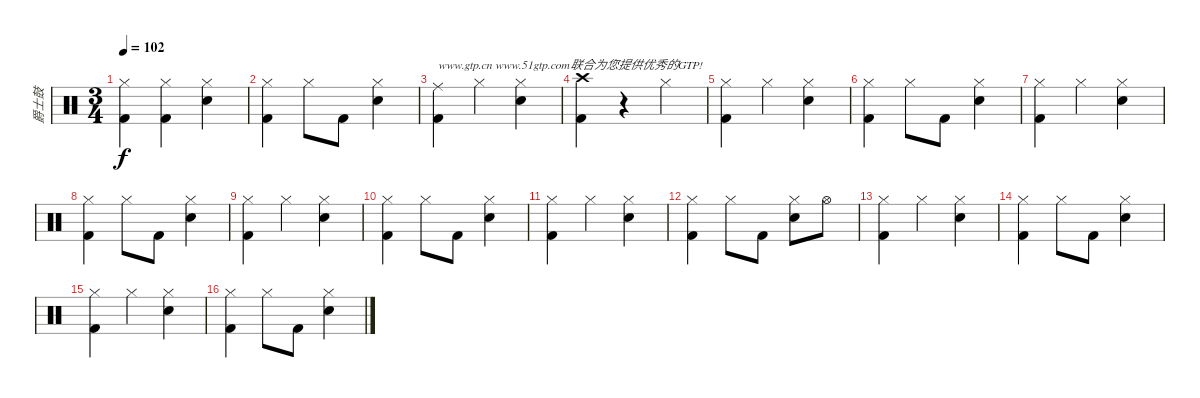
\track ("爵士鼓" "爵士鼓") {instrument percussion}
\staff {score}
\articulation defaults
\ts (3 4)
\tempo 102
\clef neutral
\ks c
("Hi-Hat (closed)" "Kick (hit) 2").4{dy f} ("Hi-Hat (closed)" "Kick (hit) 2").4 ("Hi-Hat (closed)" "Electric Snare (hit)").4 |
("Hi-Hat (closed)" "Kick (hit) 2").4 "Hi-Hat (closed)".8 "Kick (hit) 2".8 ("Hi-Hat (closed)" "Electric Snare (hit)").4 |
("Ride (middle)" "Kick (hit) 2").4{txt "www.gtp.cn www.51gtp.com联合为您提供优秀的GTP!"} "Hi-Hat (closed)".4 ("Hi-Hat (closed)" "Electric Snare (hit)").4 |
("Crash high (hit)" "Kick (hit) 2").4 r.4 "Hi-Hat (closed)".4 |
("Hi-Hat (closed)" "Kick (hit) 2").4 "Hi-Hat (closed)".4 ("Hi-Hat (closed)" "Electric Snare (hit)").4 |
("Hi-Hat (closed)" "Kick (hit) 2").4 "Hi-Hat (closed)".8 "Kick (hit) 2".8 ("Hi-Hat (closed)" "Electric Snare (hit)").4 |
("Hi-Hat (closed)" "Kick (hit) 2").4 "Hi-Hat (closed)".4 ("Hi-Hat (closed)" "Electric Snare (hit)").4 |
("Hi-Hat (closed)" "Kick (hit) 2").4 "Hi-Hat (closed)".8 "Kick (hit) 2".8 ("Hi-Hat (closed)" "Electric Snare (hit)").4 |
("Hi-Hat (closed)" "Kick (hit) 2").4 "Hi-Hat (closed)".4 ("Hi-Hat (closed)" "Electric Snare (hit)").4 |
("Hi-Hat (closed)" "Kick (hit) 2").4 "Hi-Hat (closed)".8 "Kick (hit) 2".8 ("Hi-Hat (closed)" "Electric Snare (hit)").4 |
("Hi-Hat (closed)" "Kick (hit) 2").4 "Hi-Hat (closed)".4 ("Hi-Hat (closed)" "Electric Snare (hit)").4 |
("Hi-Hat (closed)" "Kick (hit) 2").4 "Hi-Hat (closed)".8 "Kick (hit) 2".8 ("Hi-Hat (closed)" "Electric Snare (hit)").8 "Hi-Hat (open)".8 |
("Hi-Hat (closed)" "Kick (hit) 2").4 "Hi-Hat (closed)".4 ("Hi-Hat (closed)" "Electric Snare (hit)").4 |
("Hi-Hat (closed)" "Kick (hit) 2").4 "Hi-Hat (closed)".8 "Kick (hit) 2".8 ("Hi-Hat (closed)" "Electric Snare (hit)").4 |
("Hi-Hat (closed)" "Kick (hit) 2").4 "Hi-Hat (closed)".4 ("Hi-Hat (closed)" "Electric Snare (hit)").4 |
("Hi-Hat (closed)" "Kick (hit) 2").4 "Hi-Hat (closed)".8 "Kick (hit) 2".8 ("Hi-Hat (closed)" "Electric Snare (hit)").4
